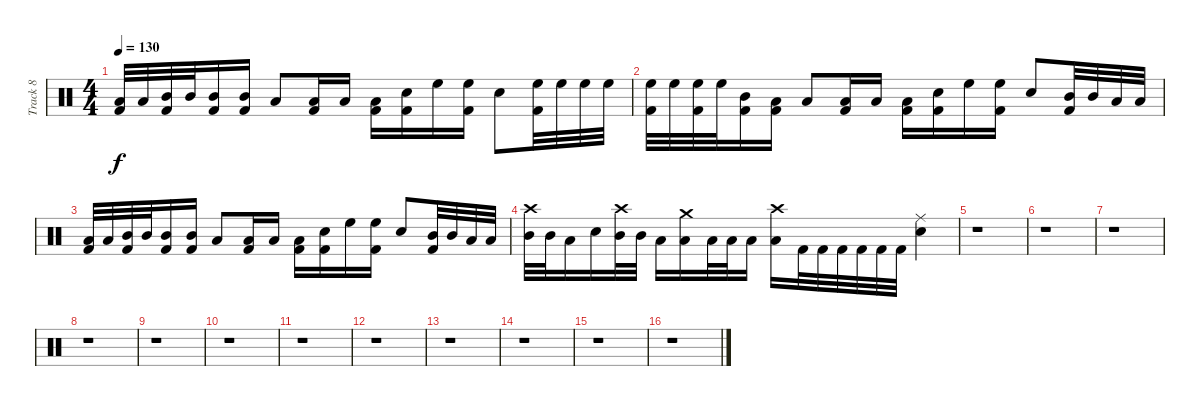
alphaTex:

\track ("Track 8" "Track 8") {instrument percussion}
\staff {score}
\articulation defaults
\ts (4 4)
\tempo 130
\clef neutral
\ks c
("Low Tom (hit)" "Kick (hit) 2").32{dy f} "Low Tom (hit)".32 ("Mid Tom (hit)" "Kick (hit) 2").32 "Mid Tom (hit)".32 ("Mid Tom (hit)" "Kick (hit) 2").16 ("Mid Tom (hit)" "Kick (hit) 2").16 "Low Floor Tom (hit)".8 ("Low Floor Tom (hit)" "Kick (hit) 2").16 "Low Tom (hit)".16 ("Low Tom (hit)" "Kick (hit) 2").16 ("Snare (hit) 2" "Kick (hit) 2").16 "High Floor Tom (hit)".16 ("High Floor Tom (hit)" "Kick (hit) 2").16 "Snare (hit) 2".8 ("High Floor Tom (hit)" "Kick (hit) 2").32 "High Floor Tom (hit)".32 "High Floor Tom (hit)".32 "High Floor Tom (hit)".32 |
("High Floor Tom (hit)" "Kick (hit) 2").32 "High Floor Tom (hit)".32 ("High Floor Tom (hit)" "Kick (hit) 2").32 "High Floor Tom (hit)".32 ("Mid Tom (hit)" "Kick (hit) 2").16 ("Low Tom (hit)" "Kick (hit) 2").16 "Low Floor Tom (hit)".8 ("Low Floor Tom (hit)" "Kick (hit) 2").16 "Low Tom (hit)".16 ("Low Tom (hit)" "Kick (hit) 2").16 ("Snare (hit) 2" "Kick (hit) 2").16 "High Floor Tom (hit)".16 ("High Floor Tom (hit)" "Kick (hit) 2").16 "Snare (hit) 2".8 ("Mid Tom (hit)" "Kick (hit) 2").32 "Mid Tom (hit)".32 "Low Tom (hit)".32 "Low Tom (hit)".32 |
("Low Tom (hit)" "Kick (hit) 2").32 "Low Tom (hit)".32 ("Mid Tom (hit)" "Kick (hit) 2").32 "Mid Tom (hit)".32 ("Mid Tom (hit)" "Kick (hit) 2").16 ("Mid Tom (hit)" "Kick (hit) 2").16 "Low Floor Tom (hit)".8 ("Low Floor Tom (hit)" "Kick (hit) 2").16 "Low Tom (hit)".16 ("Low Tom (hit)" "Kick (hit) 2").16 ("Snare (hit) 2" "Kick (hit) 2").16 "High Floor Tom (hit)".16 ("High Floor Tom (hit)" "Kick (hit) 2").16 "Snare (hit) 2".8 ("Mid Tom (hit)" "Kick (hit) 2").32 "Mid Tom (hit)".32 "Low Tom (hit)".32 "Low Tom (hit)".32 |
("Crash high (hit)" "Mid Tom (hit)").32 "Mid Tom (hit)".32 "Low Tom (hit)".16 "Snare (hit) 2".16 ("Crash high (hit)" "Mid Tom (hit)").32 "Mid Tom (hit)".32 "Low Tom (hit)".16 ("Crash medium (hit)" "Low Floor Tom (hit)").16 "Low Tom (hit)".32 "Low Tom (hit)".32 "Low Floor Tom (hit)".16 ("Crash high (hit)" "Low Floor Tom (hit)").16 "Kick (hit) 2".32 "Kick (hit) 2".32 "Kick (hit) 2".32 "Kick (hit) 2".32 "Kick (hit) 2".32 "Kick (hit) 2".32 ("Ride (middle)" "Snare (hit) 2").4 |
r.1 |
r.1 |
r.1 |
r.1 |
r.1 |
r.1 |
r.1 |
r.1 |
r.1 |
r.1 |
r.1 |
r.1
